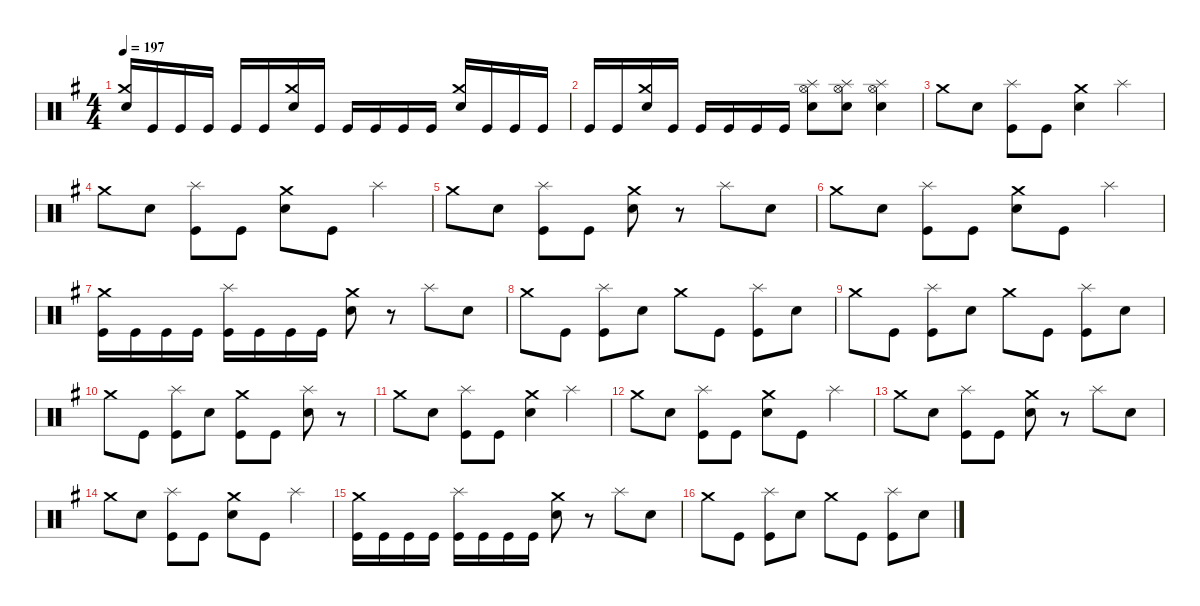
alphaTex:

\defaultSystemsLayout 4
\hideDynamics
\bracketExtendMode nobrackets
\singleTrackTrackNamePolicy hidden
\multiTrackTrackNamePolicy hidden
\firstSystemTrackNameMode fullname
\firstSystemTrackNameOrientation horizontal
\otherSystemsTrackNameOrientation horizontal
\track ("Drums" "drm.") {defaultSystemsLayout 4 instrument percussion}
\staff {score}
\articulation defaults
\ts (4 4)
\tempo 197
\clef neutral
\ks eminor
("Crash medium (hit)"{acc forcenatural} "Snare (hit) 2"{acc forcenatural}).16{dy f beam Up} "Kick (hit)"{acc forcenatural}.16{beam Up} "Kick (hit)"{acc forcenatural}.16{beam Up} "Kick (hit)"{acc forcenatural}.16{beam Up} "Kick (hit)"{acc forcenatural}.16{beam Up} "Kick (hit)"{acc forcenatural}.16{beam Up} ("Crash medium (hit)"{acc forcenatural} "Snare (hit) 2"{acc forcenatural}).16{beam Up} "Kick (hit)"{acc forcenatural}.16{beam Up} "Kick (hit)"{acc forcenatural}.16{beam Up} "Kick (hit)"{acc forcenatural}.16{beam Up} "Kick (hit)"{acc forcenatural}.16{beam Up} "Kick (hit)"{acc forcenatural}.16{beam Up} ("Crash medium (hit)"{acc forcenatural} "Snare (hit) 2"{acc forcenatural}).16{beam Up} "Kick (hit)"{acc forcenatural}.16{beam Up} "Kick (hit)"{acc forcenatural}.16{beam Up} "Kick (hit)"{acc forcenatural}.16{beam Up} |
"Kick (hit)"{acc forcenatural}.16{beam Up} "Kick (hit)"{acc forcenatural}.16{beam Up} ("Crash medium (hit)"{acc forcenatural} "Snare (hit) 2"{acc forcenatural}).16{beam Up} "Kick (hit)"{acc forcenatural}.16{beam Up} "Kick (hit)"{acc forcenatural}.16{beam Up} "Kick (hit)"{acc forcenatural}.16{beam Up} "Kick (hit)"{acc forcenatural}.16{beam Up} "Kick (hit)"{acc forcenatural}.16{beam Up} ("Splash (hit)"{acc forcenatural} "Hi-Hat (open)"{acc forcenatural} "Snare (hit) 2"{acc forcenatural}).8{beam Down} ("Splash (hit)"{acc forcenatural} "Hi-Hat (open)"{acc forcenatural} "Snare (hit) 2"{acc forcenatural}).8{beam Down} ("Splash (hit)"{acc forcenatural} "Hi-Hat (open)"{acc forcenatural} "Snare (hit) 2"{acc forcenatural}).4{beam Down} |
"Crash medium (hit)"{acc forcenatural}.8{dy mf beam Down} "Snare (hit) 2"{acc forcenatural}.8{dy f beam Down} ("Splash (hit)"{acc forcenatural} "Kick (hit)"{acc forcenatural}).8{dy mf beam Down} "Kick (hit)"{acc forcenatural}.8{dy f beam Down} ("Crash medium (hit)"{acc forcenatural} "Snare (hit) 2"{acc forcenatural}).4{dy mf beam Down} "Splash (hit)"{acc forcenatural}.4{beam Down} |
"Crash medium (hit)"{acc forcenatural}.8{beam Down} "Snare (hit) 2"{acc forcenatural}.8{dy f beam Down} ("Splash (hit)"{acc forcenatural} "Kick (hit)"{acc forcenatural}).8{dy mf beam Down} "Kick (hit)"{acc forcenatural}.8{dy f beam Down} ("Crash medium (hit)"{acc forcenatural} "Snare (hit) 2"{acc forcenatural}).8{dy mf beam Down} "Kick (hit)"{acc forcenatural}.8{dy f beam Down} "Splash (hit)"{acc forcenatural}.4{dy mf beam Down} |
"Crash medium (hit)"{acc forcenatural}.8{beam Down} "Snare (hit) 2"{acc forcenatural}.8{dy f beam Down} ("Splash (hit)"{acc forcenatural} "Kick (hit)"{acc forcenatural}).8{dy mf beam Down} "Kick (hit)"{acc forcenatural}.8{dy f beam Down} ("Crash medium (hit)"{acc forcenatural} "Snare (hit) 2"{acc forcenatural}).8{dy mf beam Down} r.8{beam Down} "Splash (hit)"{acc forcenatural}.8{beam Down} "Snare (hit) 2"{acc forcenatural}.8{dy f beam Down} |
"Crash medium (hit)"{acc forcenatural}.8{dy mf beam Down} "Snare (hit) 2"{acc forcenatural}.8{dy f beam Down} ("Splash (hit)"{acc forcenatural} "Kick (hit)"{acc forcenatural}).8{dy mf beam Down} "Kick (hit)"{acc forcenatural}.8{dy f beam Down} ("Crash medium (hit)"{acc forcenatural} "Snare (hit) 2"{acc forcenatural}).8{dy mf beam Down} "Kick (hit)"{acc forcenatural}.8{dy f beam Down} "Splash (hit)"{acc forcenatural}.4{dy mf beam Down} |
("Crash medium (hit)"{acc forcenatural} "Kick (hit)"{acc forcenatural}).16{beam Down} "Kick (hit)"{acc forcenatural}.16{dy f beam Down} "Kick (hit)"{acc forcenatural}.16{beam Down} "Kick (hit)"{acc forcenatural}.16{beam Down} ("Splash (hit)"{acc forcenatural} "Kick (hit)"{acc forcenatural}).16{dy mf beam Down} "Kick (hit)"{acc forcenatural}.16{dy f beam Down} "Kick (hit)"{acc forcenatural}.16{beam Down} "Kick (hit)"{acc forcenatural}.16{beam Down} ("Crash medium (hit)"{acc forcenatural} "Snare (hit) 2"{acc forcenatural}).8{dy mf beam Down} r.8{beam Down} "Splash (hit)"{acc forcenatural}.8{beam Down} "Snare (hit) 2"{acc forcenatural}.8{dy f beam Down} |
"Crash medium (hit)"{acc forcenatural}.8{dy mf beam Down} "Kick (hit)"{acc forcenatural}.8{dy f beam Down} ("Splash (hit)"{acc forcenatural} "Kick (hit)"{acc forcenatural}).8{dy mf beam Down} "Snare (hit) 2"{acc forcenatural}.8{dy f beam Down} "Crash medium (hit)"{acc forcenatural}.8{dy mf beam Down} "Kick (hit)"{acc forcenatural}.8{dy f beam Down} ("Splash (hit)"{acc forcenatural} "Kick (hit)"{acc forcenatural}).8{dy mf beam Down} "Snare (hit) 2"{acc forcenatural}.8{dy f beam Down} |
"Crash medium (hit)"{acc forcenatural}.8{dy mf beam Down} "Kick (hit)"{acc forcenatural}.8{dy f beam Down} ("Splash (hit)"{acc forcenatural} "Kick (hit)"{acc forcenatural}).8{dy mf beam Down} "Snare (hit) 2"{acc forcenatural}.8{dy f beam Down} "Crash medium (hit)"{acc forcenatural}.8{dy mf beam Down} "Kick (hit)"{acc forcenatural}.8{dy f beam Down} ("Splash (hit)"{acc forcenatural} "Kick (hit)"{acc forcenatural}).8{dy mf beam Down} "Snare (hit) 2"{acc forcenatural}.8{dy f beam Down} |
"Crash medium (hit)"{acc forcenatural}.8{dy mf beam Down} "Kick (hit)"{acc forcenatural}.8{dy f beam Down} ("Splash (hit)"{acc forcenatural} "Kick (hit)"{acc forcenatural}).8{dy mf beam Down} "Snare (hit) 2"{acc forcenatural}.8{dy f beam Down} ("Crash medium (hit)"{acc forcenatural} "Kick (hit)"{acc forcenatural}).8{dy mf beam Down} "Kick (hit)"{acc forcenatural}.8{dy f beam Down} ("Splash (hit)"{acc forcenatural} "Snare (hit) 2"{acc forcenatural}).8{dy mf beam Down} r.8{beam Down} |
"Crash medium (hit)"{acc forcenatural}.8{beam Down} "Snare (hit) 2"{acc forcenatural}.8{dy f beam Down} ("Splash (hit)"{acc forcenatural} "Kick (hit)"{acc forcenatural}).8{dy mf beam Down} "Kick (hit)"{acc forcenatural}.8{dy f beam Down} ("Crash medium (hit)"{acc forcenatural} "Snare (hit) 2"{acc forcenatural}).4{dy mf beam Down} "Splash (hit)"{acc forcenatural}.4{beam Down} |
"Crash medium (hit)"{acc forcenatural}.8{beam Down} "Snare (hit) 2"{acc forcenatural}.8{dy f beam Down} ("Splash (hit)"{acc forcenatural} "Kick (hit)"{acc forcenatural}).8{dy mf beam Down} "Kick (hit)"{acc forcenatural}.8{dy f beam Down} ("Crash medium (hit)"{acc forcenatural} "Snare (hit) 2"{acc forcenatural}).8{dy mf beam Down} "Kick (hit)"{acc forcenatural}.8{dy f beam Down} "Splash (hit)"{acc forcenatural}.4{dy mf beam Down} |
"Crash medium (hit)"{acc forcenatural}.8{beam Down} "Snare (hit) 2"{acc forcenatural}.8{dy f beam Down} ("Splash (hit)"{acc forcenatural} "Kick (hit)"{acc forcenatural}).8{dy mf beam Down} "Kick (hit)"{acc forcenatural}.8{dy f beam Down} ("Crash medium (hit)"{acc forcenatural} "Snare (hit) 2"{acc forcenatural}).8{dy mf beam Down} r.8{beam Down} "Splash (hit)"{acc forcenatural}.8{beam Down} "Snare (hit) 2"{acc forcenatural}.8{dy f beam Down} |
"Crash medium (hit)"{acc forcenatural}.8{dy mf beam Down} "Snare (hit) 2"{acc forcenatural}.8{dy f beam Down} ("Splash (hit)"{acc forcenatural} "Kick (hit)"{acc forcenatural}).8{dy mf beam Down} "Kick (hit)"{acc forcenatural}.8{dy f beam Down} ("Crash medium (hit)"{acc forcenatural} "Snare (hit) 2"{acc forcenatural}).8{dy mf beam Down} "Kick (hit)"{acc forcenatural}.8{dy f beam Down} "Splash (hit)"{acc forcenatural}.4{dy mf beam Down} |
("Crash medium (hit)"{acc forcenatural} "Kick (hit)"{acc forcenatural}).16{beam Down} "Kick (hit)"{acc forcenatural}.16{dy f beam Down} "Kick (hit)"{acc forcenatural}.16{beam Down} "Kick (hit)"{acc forcenatural}.16{beam Down} ("Splash (hit)"{acc forcenatural} "Kick (hit)"{acc forcenatural}).16{dy mf beam Down} "Kick (hit)"{acc forcenatural}.16{dy f beam Down} "Kick (hit)"{acc forcenatural}.16{beam Down} "Kick (hit)"{acc forcenatural}.16{beam Down} ("Crash medium (hit)"{acc forcenatural} "Snare (hit) 2"{acc forcenatural}).8{dy mf beam Down} r.8{beam Down} "Splash (hit)"{acc forcenatural}.8{beam Down} "Snare (hit) 2"{acc forcenatural}.8{dy f beam Down} |
"Crash medium (hit)"{acc forcenatural}.8{dy mf beam Down} "Kick (hit)"{acc forcenatural}.8{dy f beam Down} ("Splash (hit)"{acc forcenatural} "Kick (hit)"{acc forcenatural}).8{dy mf beam Down} "Snare (hit) 2"{acc forcenatural}.8{dy f beam Down} "Crash medium (hit)"{acc forcenatural}.8{dy mf beam Down} "Kick (hit)"{acc forcenatural}.8{dy f beam Down} ("Splash (hit)"{acc forcenatural} "Kick (hit)"{acc forcenatural}).8{dy mf beam Down} "Snare (hit) 2"{acc forcenatural}.8{dy f beam Down}
